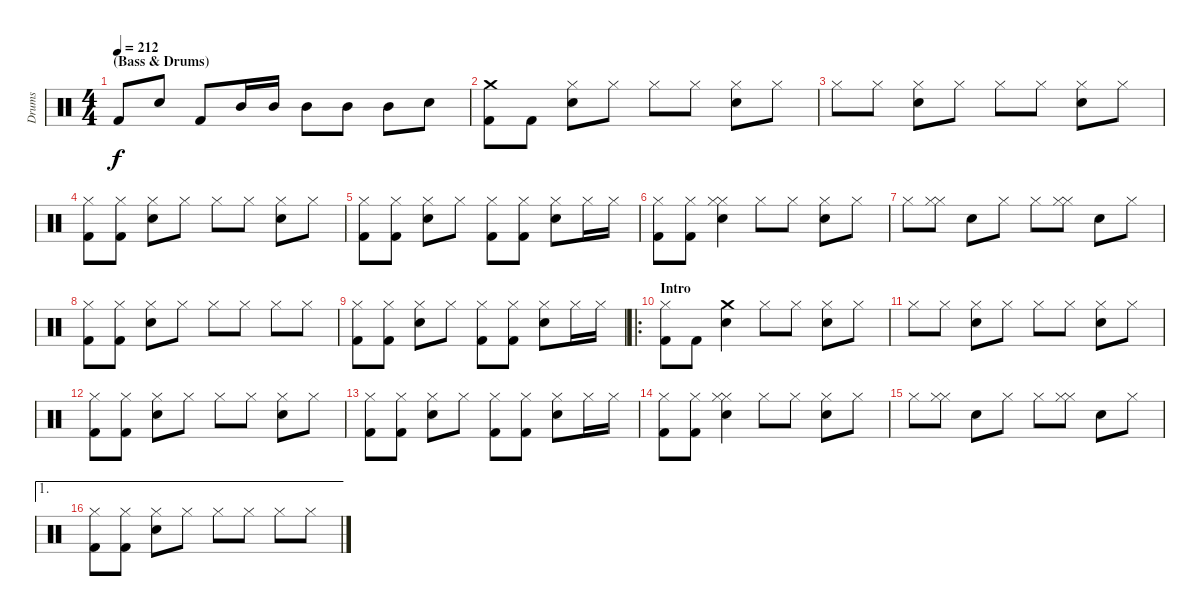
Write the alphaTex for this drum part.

\track ("Drums" "Drums") {instrument percussion}
\staff {score}
\articulation defaults
\ts (4 4)
\section ("" "(Bass & Drums)")
\tempo 212
\clef neutral
\ks c "Kick (hit) 2".8{dy f} "Electric Snare (hit)".8 "Kick (hit) 2".8 "Mid Tom (hit)".16 "Mid Tom (hit)".16 "Mid Tom (hit)".8 "Mid Tom (hit)".8 "Mid Tom (hit)".8 "Electric Snare (hit)".8
|
("Crash medium (hit)" "Kick (hit) 2").8 "Kick (hit) 2".8 ("Hi-Hat (closed)" "Electric Snare (hit)").8 "Hi-Hat (closed)".8 "Hi-Hat (closed)".8 "Hi-Hat (closed)".8 ("Hi-Hat (closed)" "Electric Snare (hit)").8 "Hi-Hat (closed)".8 |
"Hi-Hat (closed)".8 "Hi-Hat (closed)".8 ("Hi-Hat (closed)" "Electric Snare (hit)").8 "Hi-Hat (closed)".8 "Hi-Hat (closed)".8 "Hi-Hat (closed)".8 ("Hi-Hat (closed)" "Electric Snare (hit)").8 "Hi-Hat (closed)".8 |
("Hi-Hat (closed)" "Kick (hit) 2").8 ("Hi-Hat (closed)" "Kick (hit) 2").8 ("Hi-Hat (closed)" "Electric Snare (hit)").8 "Hi-Hat (closed)".8 "Hi-Hat (closed)".8 "Hi-Hat (closed)".8 ("Hi-Hat (closed)" "Electric Snare (hit)").8 "Hi-Hat (closed)".8 |
("Hi-Hat (closed)" "Kick (hit) 2").8 ("Hi-Hat (closed)" "Kick (hit) 2").8 ("Hi-Hat (closed)" "Electric Snare (hit)").8 "Hi-Hat (closed)".8 ("Hi-Hat (closed)" "Kick (hit) 2").8 ("Hi-Hat (closed)" "Kick (hit) 2").8 ("Hi-Hat (closed)" "Electric Snare (hit)").8 "Hi-Hat (closed)".16 "Hi-Hat (closed)".16 |
("Hi-Hat (closed)" "Kick (hit) 2").8 ("Hi-Hat (closed)" "Kick (hit) 2").8 ("Hi-Hat (closed)" "Hi-Hat (closed)" "Electric Snare (hit)").4 "Hi-Hat (closed)".8 "Hi-Hat (closed)".8 ("Hi-Hat (closed)" "Electric Snare (hit)").8 "Hi-Hat (closed)".8 |
"Hi-Hat (closed)".8 ("Hi-Hat (closed)" "Hi-Hat (closed)").8 "Electric Snare (hit)".8 "Hi-Hat (closed)".8 "Hi-Hat (closed)".8 ("Hi-Hat (closed)" "Hi-Hat (closed)").8 "Electric Snare (hit)".8 "Hi-Hat (closed)".8 |
("Hi-Hat (closed)" "Kick (hit) 2").8 ("Hi-Hat (closed)" "Kick (hit) 2").8 ("Hi-Hat (closed)" "Electric Snare (hit)").8 "Hi-Hat (closed)".8 "Hi-Hat (closed)".8 "Hi-Hat (closed)".8 "Hi-Hat (closed)".8 "Hi-Hat (closed)".8 |
("Hi-Hat (closed)" "Kick (hit) 2").8 ("Hi-Hat (closed)" "Kick (hit) 2").8 ("Hi-Hat (closed)" "Electric Snare (hit)").8 "Hi-Hat (closed)".8 ("Hi-Hat (closed)" "Kick (hit) 2").8 ("Hi-Hat (closed)" "Kick (hit) 2").8 ("Hi-Hat (closed)" "Electric Snare (hit)").8 "Hi-Hat (closed)".16 "Hi-Hat (closed)".16 |
\ro
\section ("" "Intro")
("Hi-Hat (closed)" "Kick (hit) 2").8 "Kick (hit) 2".8 ("Crash medium (hit)" "Electric Snare (hit)").4 "Hi-Hat (closed)".8 "Hi-Hat (closed)".8 ("Hi-Hat (closed)" "Electric Snare (hit)").8 "Hi-Hat (closed)".8 |
"Hi-Hat (closed)".8 "Hi-Hat (closed)".8 ("Hi-Hat (closed)" "Electric Snare (hit)").8 "Hi-Hat (closed)".8 "Hi-Hat (closed)".8 "Hi-Hat (closed)".8 ("Hi-Hat (closed)" "Electric Snare (hit)").8 "Hi-Hat (closed)".8 |
("Hi-Hat (closed)" "Kick (hit) 2").8 ("Hi-Hat (closed)" "Kick (hit) 2").8 ("Hi-Hat (closed)" "Electric Snare (hit)").8 "Hi-Hat (closed)".8 "Hi-Hat (closed)".8 "Hi-Hat (closed)".8 ("Hi-Hat (closed)" "Electric Snare (hit)").8 "Hi-Hat (closed)".8 |
("Hi-Hat (closed)" "Kick (hit) 2").8 ("Hi-Hat (closed)" "Kick (hit) 2").8 ("Hi-Hat (closed)" "Electric Snare (hit)").8 "Hi-Hat (closed)".8 ("Hi-Hat (closed)" "Kick (hit) 2").8 ("Hi-Hat (closed)" "Kick (hit) 2").8 ("Hi-Hat (closed)" "Electric Snare (hit)").8 "Hi-Hat (closed)".16 "Hi-Hat (closed)".16 |
("Hi-Hat (closed)" "Kick (hit) 2").8 ("Hi-Hat (closed)" "Kick (hit) 2").8 ("Hi-Hat (closed)" "Hi-Hat (closed)" "Electric Snare (hit)").4 "Hi-Hat (closed)".8 "Hi-Hat (closed)".8 ("Hi-Hat (closed)" "Electric Snare (hit)").8 "Hi-Hat (closed)".8 |
"Hi-Hat (closed)".8 ("Hi-Hat (closed)" "Hi-Hat (closed)").8 "Electric Snare (hit)".8 "Hi-Hat (closed)".8 "Hi-Hat (closed)".8 ("Hi-Hat (closed)" "Hi-Hat (closed)").8 "Electric Snare (hit)".8 "Hi-Hat (closed)".8 |
\ae 1
("Hi-Hat (closed)" "Kick (hit) 2").8 ("Hi-Hat (closed)" "Kick (hit) 2").8 ("Hi-Hat (closed)" "Electric Snare (hit)").8 "Hi-Hat (closed)".8 "Hi-Hat (closed)".8 "Hi-Hat (closed)".8 "Hi-Hat (closed)".8 "Hi-Hat (closed)".8
